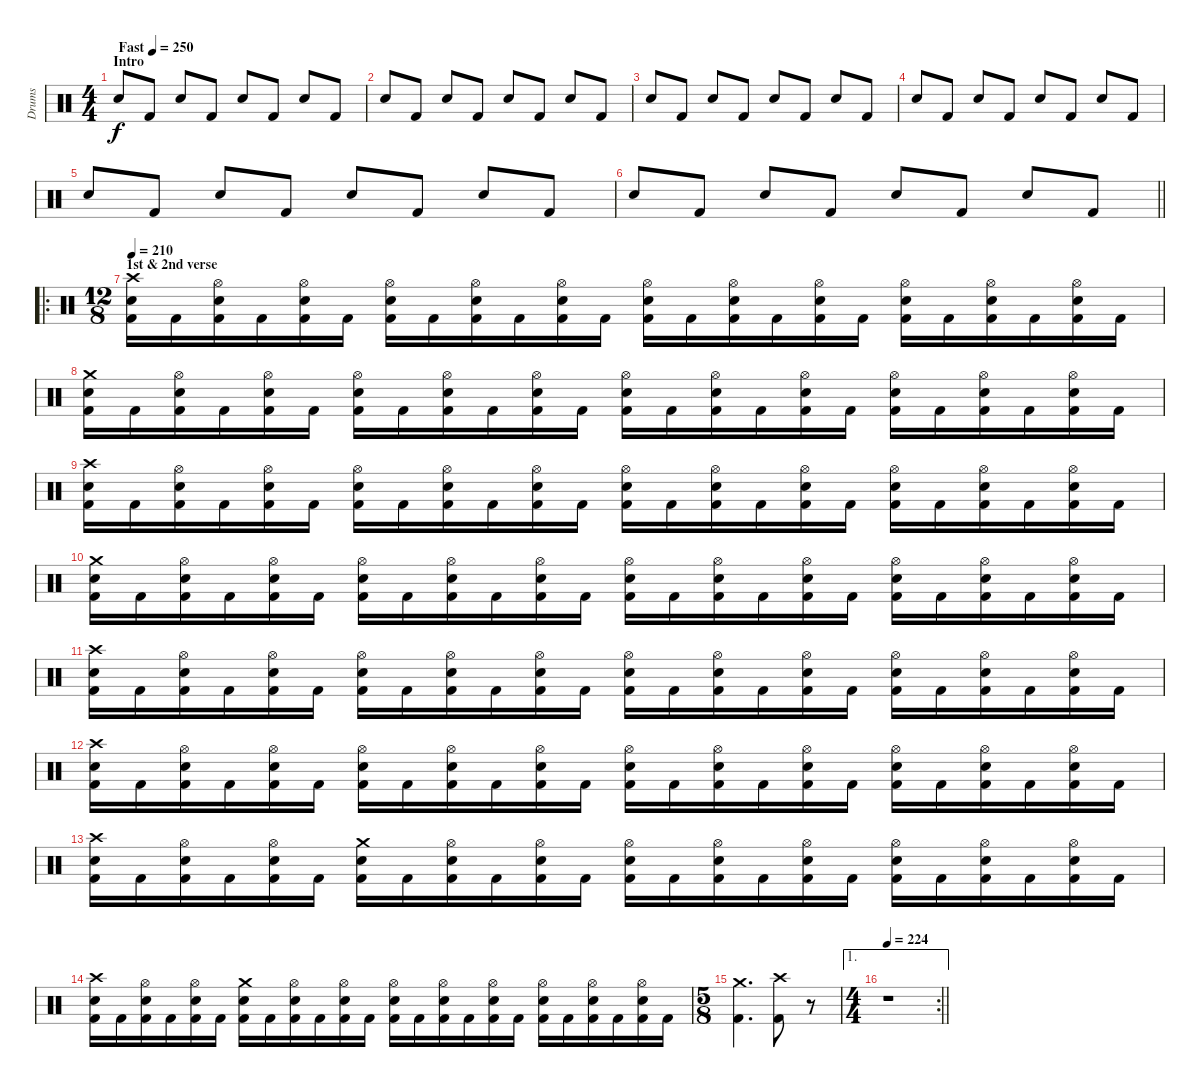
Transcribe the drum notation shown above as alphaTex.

\track ("Drums" "Drums") {instrument percussion}
\staff {score}
\articulation defaults
\ts (4 4)
\section ("" "Intro")
\tempo (250 "Fast")
\clef neutral
\ks c "Electric Snare (hit)".8{dy f} "Kick (hit) 2".8 "Electric Snare (hit)".8 "Kick (hit) 2".8 "Electric Snare (hit)".8 "Kick (hit) 2".8 "Electric Snare (hit)".8 "Kick (hit) 2".8
|
"Electric Snare (hit)".8 "Kick (hit) 2".8 "Electric Snare (hit)".8 "Kick (hit) 2".8 "Electric Snare (hit)".8 "Kick (hit) 2".8 "Electric Snare (hit)".8 "Kick (hit) 2".8 |
"Electric Snare (hit)".8 "Kick (hit) 2".8 "Electric Snare (hit)".8 "Kick (hit) 2".8 "Electric Snare (hit)".8 "Kick (hit) 2".8 "Electric Snare (hit)".8 "Kick (hit) 2".8 |
"Electric Snare (hit)".8 "Kick (hit) 2".8 "Electric Snare (hit)".8 "Kick (hit) 2".8 "Electric Snare (hit)".8 "Kick (hit) 2".8 "Electric Snare (hit)".8 "Kick (hit) 2".8 |
"Electric Snare (hit)".8 "Kick (hit) 2".8 "Electric Snare (hit)".8 "Kick (hit) 2".8 "Electric Snare (hit)".8 "Kick (hit) 2".8 "Electric Snare (hit)".8 "Kick (hit) 2".8 |
\barLineRight lightlight "Electric Snare (hit)".8 "Kick (hit) 2".8 "Electric Snare (hit)".8 "Kick (hit) 2".8 "Electric Snare (hit)".8 "Kick (hit) 2".8 "Electric Snare (hit)".8 "Kick (hit) 2".8
|
\ro
\ts (12 8)
\section ("" "1st & 2nd verse")
\tempo 210
("Crash high (hit)" "Electric Snare (hit)" "Kick (hit) 2").16 "Kick (hit) 2".16 ("Hi-Hat (open)" "Electric Snare (hit)" "Kick (hit) 2").16 "Kick (hit) 2".16 ("Hi-Hat (open)" "Electric Snare (hit)" "Kick (hit) 2").16 "Kick (hit) 2".16 ("Hi-Hat (open)" "Electric Snare (hit)" "Kick (hit) 2").16 "Kick (hit) 2".16 ("Hi-Hat (open)" "Electric Snare (hit)" "Kick (hit) 2").16 "Kick (hit) 2".16 ("Hi-Hat (open)" "Electric Snare (hit)" "Kick (hit) 2").16 "Kick (hit) 2".16 ("Hi-Hat (open)" "Electric Snare (hit)" "Kick (hit) 2").16 "Kick (hit) 2".16 ("Hi-Hat (open)" "Electric Snare (hit)" "Kick (hit) 2").16 "Kick (hit) 2".16 ("Hi-Hat (open)" "Electric Snare (hit)" "Kick (hit) 2").16 "Kick (hit) 2".16 ("Hi-Hat (open)" "Electric Snare (hit)" "Kick (hit) 2").16 "Kick (hit) 2".16 ("Hi-Hat (open)" "Electric Snare (hit)" "Kick (hit) 2").16 "Kick (hit) 2".16 ("Hi-Hat (open)" "Electric Snare (hit)" "Kick (hit) 2").16 "Kick (hit) 2".16 |
("Crash medium (hit)" "Electric Snare (hit)" "Kick (hit) 2").16 "Kick (hit) 2".16 ("Hi-Hat (open)" "Electric Snare (hit)" "Kick (hit) 2").16 "Kick (hit) 2".16 ("Hi-Hat (open)" "Electric Snare (hit)" "Kick (hit) 2").16 "Kick (hit) 2".16 ("Hi-Hat (open)" "Electric Snare (hit)" "Kick (hit) 2").16 "Kick (hit) 2".16 ("Hi-Hat (open)" "Electric Snare (hit)" "Kick (hit) 2").16 "Kick (hit) 2".16 ("Hi-Hat (open)" "Electric Snare (hit)" "Kick (hit) 2").16 "Kick (hit) 2".16 ("Hi-Hat (open)" "Electric Snare (hit)" "Kick (hit) 2").16 "Kick (hit) 2".16 ("Hi-Hat (open)" "Electric Snare (hit)" "Kick (hit) 2").16 "Kick (hit) 2".16 ("Hi-Hat (open)" "Electric Snare (hit)" "Kick (hit) 2").16 "Kick (hit) 2".16 ("Hi-Hat (open)" "Electric Snare (hit)" "Kick (hit) 2").16 "Kick (hit) 2".16 ("Hi-Hat (open)" "Electric Snare (hit)" "Kick (hit) 2").16 "Kick (hit) 2".16 ("Hi-Hat (open)" "Electric Snare (hit)" "Kick (hit) 2").16 "Kick (hit) 2".16 |
("Crash high (hit)" "Electric Snare (hit)" "Kick (hit) 2").16 "Kick (hit) 2".16 ("Hi-Hat (open)" "Electric Snare (hit)" "Kick (hit) 2").16 "Kick (hit) 2".16 ("Hi-Hat (open)" "Electric Snare (hit)" "Kick (hit) 2").16 "Kick (hit) 2".16 ("Hi-Hat (open)" "Electric Snare (hit)" "Kick (hit) 2").16 "Kick (hit) 2".16 ("Hi-Hat (open)" "Electric Snare (hit)" "Kick (hit) 2").16 "Kick (hit) 2".16 ("Hi-Hat (open)" "Electric Snare (hit)" "Kick (hit) 2").16 "Kick (hit) 2".16 ("Hi-Hat (open)" "Electric Snare (hit)" "Kick (hit) 2").16 "Kick (hit) 2".16 ("Hi-Hat (open)" "Electric Snare (hit)" "Kick (hit) 2").16 "Kick (hit) 2".16 ("Hi-Hat (open)" "Electric Snare (hit)" "Kick (hit) 2").16 "Kick (hit) 2".16 ("Hi-Hat (open)" "Electric Snare (hit)" "Kick (hit) 2").16 "Kick (hit) 2".16 ("Hi-Hat (open)" "Electric Snare (hit)" "Kick (hit) 2").16 "Kick (hit) 2".16 ("Hi-Hat (open)" "Electric Snare (hit)" "Kick (hit) 2").16 "Kick (hit) 2".16 |
("Crash medium (hit)" "Electric Snare (hit)" "Kick (hit) 2").16 "Kick (hit) 2".16 ("Hi-Hat (open)" "Electric Snare (hit)" "Kick (hit) 2").16 "Kick (hit) 2".16 ("Hi-Hat (open)" "Electric Snare (hit)" "Kick (hit) 2").16 "Kick (hit) 2".16 ("Hi-Hat (open)" "Electric Snare (hit)" "Kick (hit) 2").16 "Kick (hit) 2".16 ("Hi-Hat (open)" "Electric Snare (hit)" "Kick (hit) 2").16 "Kick (hit) 2".16 ("Hi-Hat (open)" "Electric Snare (hit)" "Kick (hit) 2").16 "Kick (hit) 2".16 ("Hi-Hat (open)" "Electric Snare (hit)" "Kick (hit) 2").16 "Kick (hit) 2".16 ("Hi-Hat (open)" "Electric Snare (hit)" "Kick (hit) 2").16 "Kick (hit) 2".16 ("Hi-Hat (open)" "Electric Snare (hit)" "Kick (hit) 2").16 "Kick (hit) 2".16 ("Hi-Hat (open)" "Electric Snare (hit)" "Kick (hit) 2").16 "Kick (hit) 2".16 ("Hi-Hat (open)" "Electric Snare (hit)" "Kick (hit) 2").16 "Kick (hit) 2".16 ("Hi-Hat (open)" "Electric Snare (hit)" "Kick (hit) 2").16 "Kick (hit) 2".16 |
("Crash high (hit)" "Electric Snare (hit)" "Kick (hit) 2").16 "Kick (hit) 2".16 ("Hi-Hat (open)" "Electric Snare (hit)" "Kick (hit) 2").16 "Kick (hit) 2".16 ("Hi-Hat (open)" "Electric Snare (hit)" "Kick (hit) 2").16 "Kick (hit) 2".16 ("Hi-Hat (open)" "Electric Snare (hit)" "Kick (hit) 2").16 "Kick (hit) 2".16 ("Hi-Hat (open)" "Electric Snare (hit)" "Kick (hit) 2").16 "Kick (hit) 2".16 ("Hi-Hat (open)" "Electric Snare (hit)" "Kick (hit) 2").16 "Kick (hit) 2".16 ("Hi-Hat (open)" "Electric Snare (hit)" "Kick (hit) 2").16 "Kick (hit) 2".16 ("Hi-Hat (open)" "Electric Snare (hit)" "Kick (hit) 2").16 "Kick (hit) 2".16 ("Hi-Hat (open)" "Electric Snare (hit)" "Kick (hit) 2").16 "Kick (hit) 2".16 ("Hi-Hat (open)" "Electric Snare (hit)" "Kick (hit) 2").16 "Kick (hit) 2".16 ("Hi-Hat (open)" "Electric Snare (hit)" "Kick (hit) 2").16 "Kick (hit) 2".16 ("Hi-Hat (open)" "Electric Snare (hit)" "Kick (hit) 2").16 "Kick (hit) 2".16 |
("Crash high (hit)" "Electric Snare (hit)" "Kick (hit) 2").16 "Kick (hit) 2".16 ("Hi-Hat (open)" "Electric Snare (hit)" "Kick (hit) 2").16 "Kick (hit) 2".16 ("Hi-Hat (open)" "Electric Snare (hit)" "Kick (hit) 2").16 "Kick (hit) 2".16 ("Hi-Hat (open)" "Electric Snare (hit)" "Kick (hit) 2").16 "Kick (hit) 2".16 ("Hi-Hat (open)" "Electric Snare (hit)" "Kick (hit) 2").16 "Kick (hit) 2".16 ("Hi-Hat (open)" "Electric Snare (hit)" "Kick (hit) 2").16 "Kick (hit) 2".16 ("Hi-Hat (open)" "Electric Snare (hit)" "Kick (hit) 2").16 "Kick (hit) 2".16 ("Hi-Hat (open)" "Electric Snare (hit)" "Kick (hit) 2").16 "Kick (hit) 2".16 ("Hi-Hat (open)" "Electric Snare (hit)" "Kick (hit) 2").16 "Kick (hit) 2".16 ("Hi-Hat (open)" "Electric Snare (hit)" "Kick (hit) 2").16 "Kick (hit) 2".16 ("Hi-Hat (open)" "Electric Snare (hit)" "Kick (hit) 2").16 "Kick (hit) 2".16 ("Hi-Hat (open)" "Electric Snare (hit)" "Kick (hit) 2").16 "Kick (hit) 2".16 |
("Crash high (hit)" "Electric Snare (hit)" "Kick (hit) 2").16 "Kick (hit) 2".16 ("Hi-Hat (open)" "Electric Snare (hit)" "Kick (hit) 2").16 "Kick (hit) 2".16 ("Hi-Hat (open)" "Electric Snare (hit)" "Kick (hit) 2").16 "Kick (hit) 2".16 ("Crash medium (hit)" "Electric Snare (hit)" "Kick (hit) 2").16 "Kick (hit) 2".16 ("Hi-Hat (open)" "Electric Snare (hit)" "Kick (hit) 2").16 "Kick (hit) 2".16 ("Hi-Hat (open)" "Electric Snare (hit)" "Kick (hit) 2").16 "Kick (hit) 2".16 ("Hi-Hat (open)" "Electric Snare (hit)" "Kick (hit) 2").16 "Kick (hit) 2".16 ("Hi-Hat (open)" "Electric Snare (hit)" "Kick (hit) 2").16 "Kick (hit) 2".16 ("Hi-Hat (open)" "Electric Snare (hit)" "Kick (hit) 2").16 "Kick (hit) 2".16 ("Hi-Hat (open)" "Electric Snare (hit)" "Kick (hit) 2").16 "Kick (hit) 2".16 ("Hi-Hat (open)" "Electric Snare (hit)" "Kick (hit) 2").16 "Kick (hit) 2".16 ("Hi-Hat (open)" "Electric Snare (hit)" "Kick (hit) 2").16 "Kick (hit) 2".16 |
("Crash high (hit)" "Electric Snare (hit)" "Kick (hit) 2").16 "Kick (hit) 2".16 ("Hi-Hat (open)" "Electric Snare (hit)" "Kick (hit) 2").16 "Kick (hit) 2".16 ("Hi-Hat (open)" "Electric Snare (hit)" "Kick (hit) 2").16 "Kick (hit) 2".16 ("Crash medium (hit)" "Electric Snare (hit)" "Kick (hit) 2").16 "Kick (hit) 2".16 ("Hi-Hat (open)" "Electric Snare (hit)" "Kick (hit) 2").16 "Kick (hit) 2".16 ("Hi-Hat (open)" "Electric Snare (hit)" "Kick (hit) 2").16 "Kick (hit) 2".16 ("Hi-Hat (open)" "Electric Snare (hit)" "Kick (hit) 2").16 "Kick (hit) 2".16 ("Hi-Hat (open)" "Electric Snare (hit)" "Kick (hit) 2").16 "Kick (hit) 2".16 ("Hi-Hat (open)" "Electric Snare (hit)" "Kick (hit) 2").16 "Kick (hit) 2".16 ("Hi-Hat (open)" "Electric Snare (hit)" "Kick (hit) 2").16 "Kick (hit) 2".16 ("Hi-Hat (open)" "Electric Snare (hit)" "Kick (hit) 2").16 "Kick (hit) 2".16 ("Hi-Hat (open)" "Electric Snare (hit)" "Kick (hit) 2").16 "Kick (hit) 2".16 |
\ts (5 8)
("Crash medium (hit)" "Kick (hit) 2").4{d} ("Crash high (hit)" "Kick (hit) 2").8 r.8 |
\ae 1
\rc 2
\ts (4 4)
\tempo 224
\barLineRight lightlight
r.1
